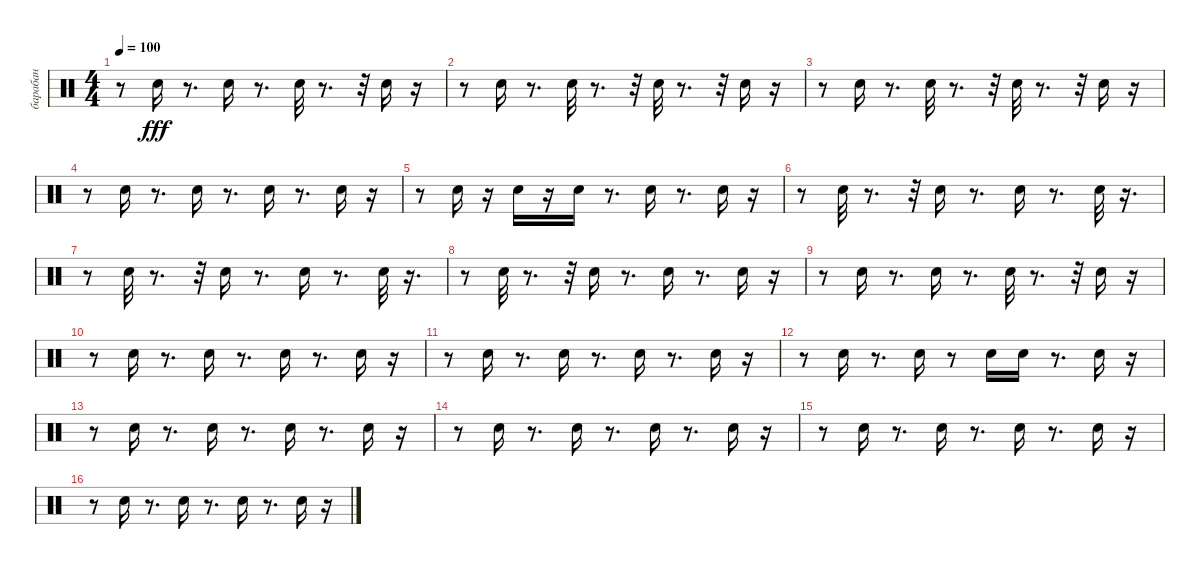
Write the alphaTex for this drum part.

\track ("барабан" "барабан") {instrument percussion}
\staff {score}
\articulation defaults
\ts (4 4)
\tempo 100
\clef neutral
\ks c
r.8{dy fff} "Snare (hit) 2".16 r.8{d} "Snare (hit) 2".16 r.8{d} "Snare (hit) 2".32 r.8{d} r.32 "Snare (hit) 2".16 r.16 |
r.8 "Snare (hit) 2".16 r.8{d} "Snare (hit) 2".32 r.8{d} r.32 "Snare (hit) 2".32 r.8{d} r.32 "Snare (hit) 2".16 r.16 |
r.8 "Snare (hit) 2".16 r.8{d} "Snare (hit) 2".32 r.8{d} r.32 "Snare (hit) 2".32 r.8{d} r.32 "Snare (hit) 2".16 r.16 |
r.8 "Snare (hit) 2".16 r.8{d} "Snare (hit) 2".16 r.8{d} "Snare (hit) 2".16 r.8{d} "Snare (hit) 2".16 r.16 |
r.8 "Snare (hit) 2".16 r.16 "Snare (hit) 2".16 r.16 "Snare (hit) 2".16 r.8{d} "Snare (hit) 2".16 r.8{d} "Snare (hit) 2".16 r.16 |
r.8 "Snare (hit) 2".32 r.8{d} r.32 "Snare (hit) 2".16 r.8{d} "Snare (hit) 2".16 r.8{d} "Snare (hit) 2".32 r.16{d} |
r.8 "Snare (hit) 2".32 r.8{d} r.32 "Snare (hit) 2".16 r.8{d} "Snare (hit) 2".16 r.8{d} "Snare (hit) 2".32 r.16{d} |
r.8 "Snare (hit) 2".32 r.8{d} r.32 "Snare (hit) 2".16 r.8{d} "Snare (hit) 2".16 r.8{d} "Snare (hit) 2".16 r.16 |
r.8 "Snare (hit) 2".16 r.8{d} "Snare (hit) 2".16 r.8{d} "Snare (hit) 2".32 r.8{d} r.32 "Snare (hit) 2".16 r.16 |
r.8 "Snare (hit) 2".16 r.8{d} "Snare (hit) 2".16 r.8{d} "Snare (hit) 2".16 r.8{d} "Snare (hit) 2".16 r.16 |
r.8 "Snare (hit) 2".16 r.8{d} "Snare (hit) 2".16 r.8{d} "Snare (hit) 2".16 r.8{d} "Snare (hit) 2".16 r.16 |
r.8 "Snare (hit) 2".16 r.8{d} "Snare (hit) 2".16 r.8 "Snare (hit) 2".16 "Snare (hit) 2".16 r.8{d} "Snare (hit) 2".16 r.16 |
r.8 "Snare (hit) 2".16 r.8{d} "Snare (hit) 2".16 r.8{d} "Snare (hit) 2".16 r.8{d} "Snare (hit) 2".16 r.16 |
r.8 "Snare (hit) 2".16 r.8{d} "Snare (hit) 2".16 r.8{d} "Snare (hit) 2".16 r.8{d} "Snare (hit) 2".16 r.16 |
r.8 "Snare (hit) 2".16 r.8{d} "Snare (hit) 2".16 r.8{d} "Snare (hit) 2".16 r.8{d} "Snare (hit) 2".16 r.16 |
r.8 "Snare (hit) 2".16 r.8{d} "Snare (hit) 2".16 r.8{d} "Snare (hit) 2".16 r.8{d} "Snare (hit) 2".16 r.16
